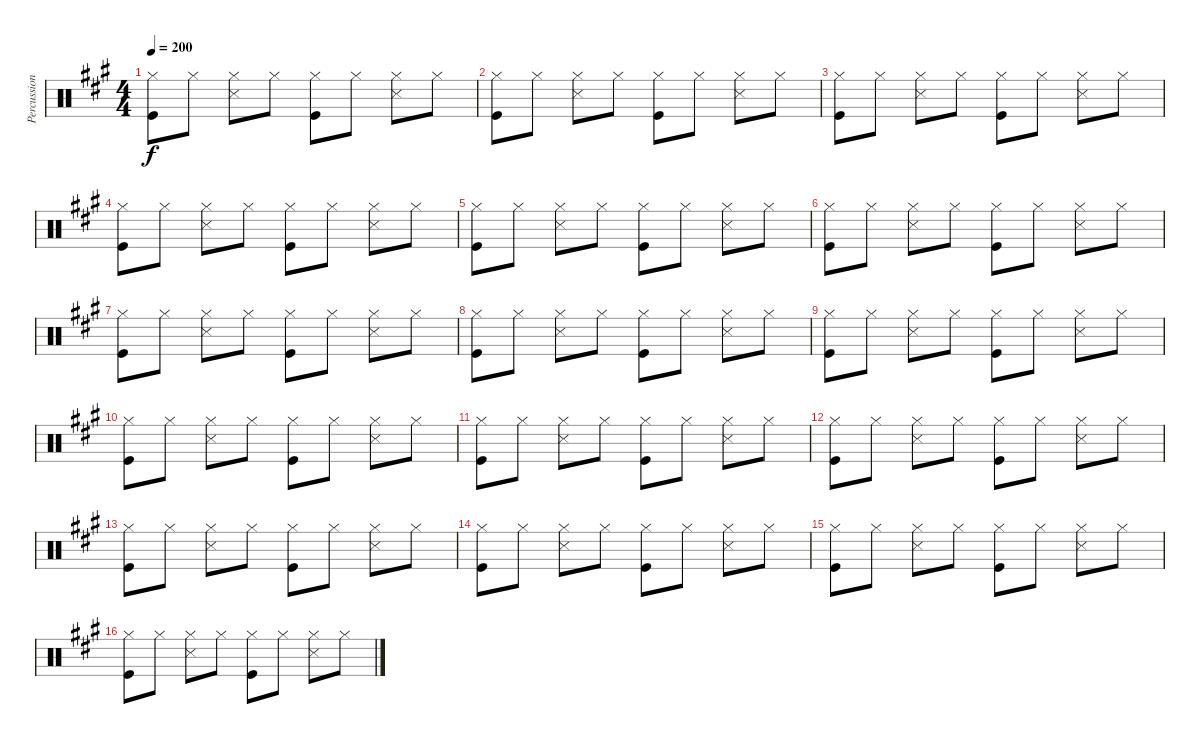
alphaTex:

\track ("Percussion" "Percussion") {instrument percussion}
\staff {score}
\articulation defaults
\ts (4 4)
\tempo 200
\clef neutral
\ks a
("Hi-Hat (closed)" "Kick (hit)").8{dy f} "Hi-Hat (closed)".8 ("Hi-Hat (closed)" "Snare (side stick) 3").8 "Hi-Hat (closed)".8 ("Hi-Hat (closed)" "Kick (hit)").8 "Hi-Hat (closed)".8 ("Hi-Hat (closed)" "Snare (side stick) 3").8 "Hi-Hat (closed)".8 |
("Hi-Hat (closed)" "Kick (hit)").8 "Hi-Hat (closed)".8 ("Hi-Hat (closed)" "Snare (side stick) 3").8 "Hi-Hat (closed)".8 ("Hi-Hat (closed)" "Kick (hit)").8 "Hi-Hat (closed)".8 ("Hi-Hat (closed)" "Snare (side stick) 3").8 "Hi-Hat (closed)".8 |
("Hi-Hat (closed)" "Kick (hit)").8 "Hi-Hat (closed)".8 ("Hi-Hat (closed)" "Snare (side stick) 3").8 "Hi-Hat (closed)".8 ("Hi-Hat (closed)" "Kick (hit)").8 "Hi-Hat (closed)".8 ("Hi-Hat (closed)" "Snare (side stick) 3").8 "Hi-Hat (closed)".8 |
("Hi-Hat (closed)" "Kick (hit)").8 "Hi-Hat (closed)".8 ("Hi-Hat (closed)" "Snare (side stick) 3").8 "Hi-Hat (closed)".8 ("Hi-Hat (closed)" "Kick (hit)").8 "Hi-Hat (closed)".8 ("Hi-Hat (closed)" "Snare (side stick) 3").8 "Hi-Hat (closed)".8 |
("Hi-Hat (closed)" "Kick (hit)").8 "Hi-Hat (closed)".8 ("Hi-Hat (closed)" "Snare (side stick) 3").8 "Hi-Hat (closed)".8 ("Hi-Hat (closed)" "Kick (hit)").8 "Hi-Hat (closed)".8 ("Hi-Hat (closed)" "Snare (side stick) 3").8 "Hi-Hat (closed)".8 |
("Hi-Hat (closed)" "Kick (hit)").8 "Hi-Hat (closed)".8 ("Hi-Hat (closed)" "Snare (side stick) 3").8 "Hi-Hat (closed)".8 ("Hi-Hat (closed)" "Kick (hit)").8 "Hi-Hat (closed)".8 ("Hi-Hat (closed)" "Snare (side stick) 3").8 "Hi-Hat (closed)".8 |
("Hi-Hat (closed)" "Kick (hit)").8 "Hi-Hat (closed)".8 ("Hi-Hat (closed)" "Snare (side stick) 3").8 "Hi-Hat (closed)".8 ("Hi-Hat (closed)" "Kick (hit)").8 "Hi-Hat (closed)".8 ("Hi-Hat (closed)" "Snare (side stick) 3").8 "Hi-Hat (closed)".8 |
("Hi-Hat (closed)" "Kick (hit)").8 "Hi-Hat (closed)".8 ("Hi-Hat (closed)" "Snare (side stick) 3").8 "Hi-Hat (closed)".8 ("Hi-Hat (closed)" "Kick (hit)").8 "Hi-Hat (closed)".8 ("Hi-Hat (closed)" "Snare (side stick) 3").8 "Hi-Hat (closed)".8 |
("Hi-Hat (closed)" "Kick (hit)").8 "Hi-Hat (closed)".8 ("Hi-Hat (closed)" "Snare (side stick) 3").8 "Hi-Hat (closed)".8 ("Hi-Hat (closed)" "Kick (hit)").8 "Hi-Hat (closed)".8 ("Hi-Hat (closed)" "Snare (side stick) 3").8 "Hi-Hat (closed)".8 |
("Hi-Hat (closed)" "Kick (hit)").8 "Hi-Hat (closed)".8 ("Hi-Hat (closed)" "Snare (side stick) 3").8 "Hi-Hat (closed)".8 ("Hi-Hat (closed)" "Kick (hit)").8 "Hi-Hat (closed)".8 ("Hi-Hat (closed)" "Snare (side stick) 3").8 "Hi-Hat (closed)".8 |
("Hi-Hat (closed)" "Kick (hit)").8 "Hi-Hat (closed)".8 ("Hi-Hat (closed)" "Snare (side stick) 3").8 "Hi-Hat (closed)".8 ("Hi-Hat (closed)" "Kick (hit)").8 "Hi-Hat (closed)".8 ("Hi-Hat (closed)" "Snare (side stick) 3").8 "Hi-Hat (closed)".8 |
("Hi-Hat (closed)" "Kick (hit)").8 "Hi-Hat (closed)".8 ("Hi-Hat (closed)" "Snare (side stick) 3").8 "Hi-Hat (closed)".8 ("Hi-Hat (closed)" "Kick (hit)").8 "Hi-Hat (closed)".8 ("Hi-Hat (closed)" "Snare (side stick) 3").8 "Hi-Hat (closed)".8 |
("Hi-Hat (closed)" "Kick (hit)").8 "Hi-Hat (closed)".8 ("Hi-Hat (closed)" "Snare (side stick) 3").8 "Hi-Hat (closed)".8 ("Hi-Hat (closed)" "Kick (hit)").8 "Hi-Hat (closed)".8 ("Hi-Hat (closed)" "Snare (side stick) 3").8 "Hi-Hat (closed)".8 |
("Hi-Hat (closed)" "Kick (hit)").8 "Hi-Hat (closed)".8 ("Hi-Hat (closed)" "Snare (side stick) 3").8 "Hi-Hat (closed)".8 ("Hi-Hat (closed)" "Kick (hit)").8 "Hi-Hat (closed)".8 ("Hi-Hat (closed)" "Snare (side stick) 3").8 "Hi-Hat (closed)".8 |
("Hi-Hat (closed)" "Kick (hit)").8 "Hi-Hat (closed)".8 ("Hi-Hat (closed)" "Snare (side stick) 3").8 "Hi-Hat (closed)".8 ("Hi-Hat (closed)" "Kick (hit)").8 "Hi-Hat (closed)".8 ("Hi-Hat (closed)" "Snare (side stick) 3").8 "Hi-Hat (closed)".8 |
("Hi-Hat (closed)" "Kick (hit)").8 "Hi-Hat (closed)".8 ("Hi-Hat (closed)" "Snare (side stick) 3").8 "Hi-Hat (closed)".8 ("Hi-Hat (closed)" "Kick (hit)").8 "Hi-Hat (closed)".8 ("Hi-Hat (closed)" "Snare (side stick) 3").8 "Hi-Hat (closed)".8
